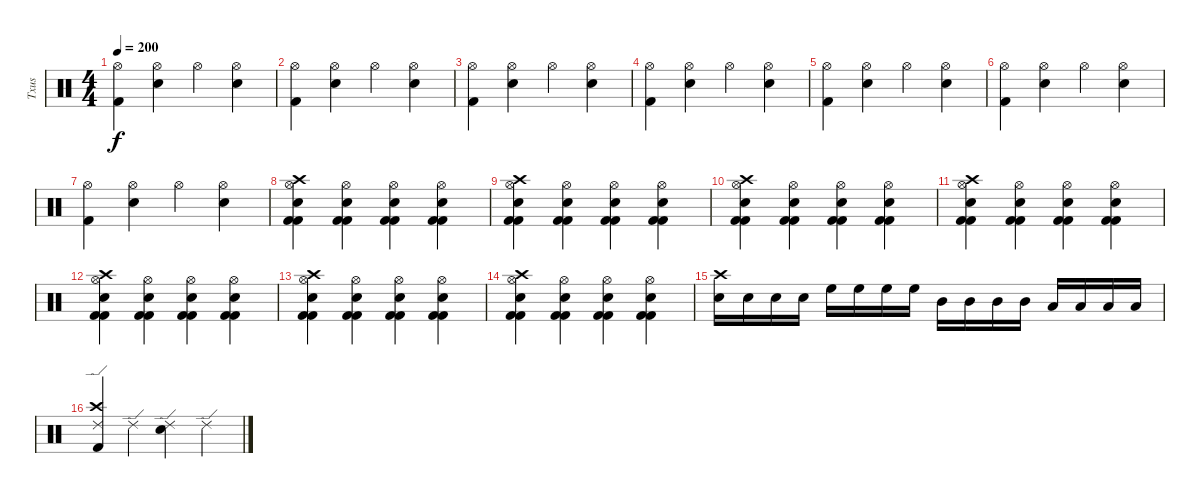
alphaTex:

\track ("Txus" "Txus") {instrument percussion}
\staff
\articulation defaults
\ts (4 4)
\tempo 200
\clef neutral
\ks c
("Hi-Hat (open)" "Kick (hit) 2").4{dy f} ("Hi-Hat (open)" "Electric Snare (hit)").4 "Hi-Hat (open)".4 ("Hi-Hat (open)" "Electric Snare (hit)").4 |
("Hi-Hat (open)" "Kick (hit) 2").4 ("Hi-Hat (open)" "Electric Snare (hit)").4 "Hi-Hat (open)".4 ("Hi-Hat (open)" "Electric Snare (hit)").4 |
("Hi-Hat (open)" "Kick (hit) 2").4 ("Hi-Hat (open)" "Electric Snare (hit)").4 "Hi-Hat (open)".4 ("Hi-Hat (open)" "Electric Snare (hit)").4 |
("Hi-Hat (open)" "Kick (hit) 2").4 ("Hi-Hat (open)" "Electric Snare (hit)").4 "Hi-Hat (open)".4 ("Hi-Hat (open)" "Electric Snare (hit)").4 |
("Hi-Hat (open)" "Kick (hit) 2").4 ("Hi-Hat (open)" "Electric Snare (hit)").4 "Hi-Hat (open)".4 ("Hi-Hat (open)" "Electric Snare (hit)").4 |
("Hi-Hat (open)" "Kick (hit) 2").4 ("Hi-Hat (open)" "Electric Snare (hit)").4 "Hi-Hat (open)".4 ("Hi-Hat (open)" "Electric Snare (hit)").4 |
("Hi-Hat (open)" "Kick (hit) 2").4 ("Hi-Hat (open)" "Electric Snare (hit)").4 "Hi-Hat (open)".4 ("Hi-Hat (open)" "Electric Snare (hit)").4 |
("Electric Snare (hit)" "Kick (hit) 2" "Kick (hit) 2" "Hi-Hat (open)" "Crash high (hit)").4 ("Electric Snare (hit)" "Kick (hit) 2" "Kick (hit) 2" "Hi-Hat (open)").4 ("Electric Snare (hit)" "Kick (hit) 2" "Kick (hit) 2" "Hi-Hat (open)").4 ("Electric Snare (hit)" "Kick (hit) 2" "Kick (hit) 2" "Hi-Hat (open)").4 |
("Electric Snare (hit)" "Kick (hit) 2" "Kick (hit) 2" "Hi-Hat (open)" "Crash high (hit)").4 ("Electric Snare (hit)" "Kick (hit) 2" "Kick (hit) 2" "Hi-Hat (open)").4 ("Electric Snare (hit)" "Kick (hit) 2" "Kick (hit) 2" "Hi-Hat (open)").4 ("Electric Snare (hit)" "Kick (hit) 2" "Kick (hit) 2" "Hi-Hat (open)").4 |
("Electric Snare (hit)" "Kick (hit) 2" "Kick (hit) 2" "Hi-Hat (open)" "Crash high (hit)").4 ("Electric Snare (hit)" "Kick (hit) 2" "Kick (hit) 2" "Hi-Hat (open)").4 ("Electric Snare (hit)" "Kick (hit) 2" "Kick (hit) 2" "Hi-Hat (open)").4 ("Electric Snare (hit)" "Kick (hit) 2" "Kick (hit) 2" "Hi-Hat (open)").4 |
("Electric Snare (hit)" "Kick (hit) 2" "Kick (hit) 2" "Hi-Hat (open)" "Crash high (hit)").4 ("Electric Snare (hit)" "Kick (hit) 2" "Kick (hit) 2" "Hi-Hat (open)").4 ("Electric Snare (hit)" "Kick (hit) 2" "Kick (hit) 2" "Hi-Hat (open)").4 ("Electric Snare (hit)" "Kick (hit) 2" "Kick (hit) 2" "Hi-Hat (open)").4 |
("Electric Snare (hit)" "Kick (hit) 2" "Kick (hit) 2" "Hi-Hat (open)" "Crash high (hit)").4 ("Electric Snare (hit)" "Kick (hit) 2" "Kick (hit) 2" "Hi-Hat (open)").4 ("Electric Snare (hit)" "Kick (hit) 2" "Kick (hit) 2" "Hi-Hat (open)").4 ("Electric Snare (hit)" "Kick (hit) 2" "Kick (hit) 2" "Hi-Hat (open)").4 |
("Electric Snare (hit)" "Kick (hit) 2" "Kick (hit) 2" "Hi-Hat (open)" "Crash high (hit)").4 ("Electric Snare (hit)" "Kick (hit) 2" "Kick (hit) 2" "Hi-Hat (open)").4 ("Electric Snare (hit)" "Kick (hit) 2" "Kick (hit) 2" "Hi-Hat (open)").4 ("Electric Snare (hit)" "Kick (hit) 2" "Kick (hit) 2" "Hi-Hat (open)").4 |
("Electric Snare (hit)" "Kick (hit) 2" "Kick (hit) 2" "Hi-Hat (open)" "Crash high (hit)").4 ("Electric Snare (hit)" "Kick (hit) 2" "Kick (hit) 2" "Hi-Hat (open)").4 ("Electric Snare (hit)" "Kick (hit) 2" "Kick (hit) 2" "Hi-Hat (open)").4 ("Electric Snare (hit)" "Kick (hit) 2" "Kick (hit) 2" "Hi-Hat (open)").4 |
("Electric Snare (hit)" "Crash high (hit)").16 "Electric Snare (hit)".16 "Electric Snare (hit)".16 "Electric Snare (hit)".16 "High Floor Tom (hit)".16 "High Floor Tom (hit)".16 "High Floor Tom (hit)".16 "High Floor Tom (hit)".16 "Mid Tom (hit)".16 "Mid Tom (hit)".16 "Mid Tom (hit)".16 "Mid Tom (hit)".16 "Low Tom (hit)".16 "Low Tom (hit)".16 "Low Tom (hit)".16 "Low Tom (hit)".16 |
("Ride (edge) 2" "Kick (hit) 2" "Crash high (hit)").4 "Ride (edge) 2".4 ("Ride (edge) 2" "Electric Snare (hit)").4 "Ride (edge) 2".4
